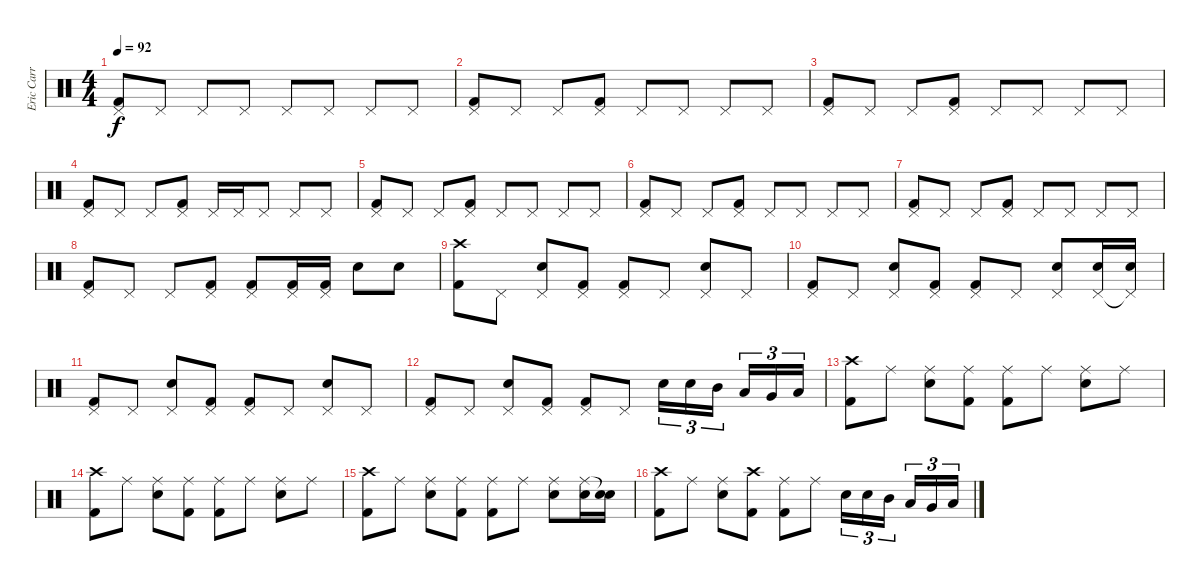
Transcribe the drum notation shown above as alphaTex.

\track ("Eric Carr" "Eric Carr") {instrument percussion}
\staff {score}
\articulation defaults
\ts (4 4)
\tempo 92
\clef neutral
\ks c
("Kick (hit) 2" "Pedal Hi-Hat (hit)").8{dy f} "Pedal Hi-Hat (hit)".8 "Pedal Hi-Hat (hit)".8 "Pedal Hi-Hat (hit)".8 "Pedal Hi-Hat (hit)".8 "Pedal Hi-Hat (hit)".8 "Pedal Hi-Hat (hit)".8 "Pedal Hi-Hat (hit)".8 |
("Kick (hit) 2" "Pedal Hi-Hat (hit)").8 "Pedal Hi-Hat (hit)".8 "Pedal Hi-Hat (hit)".8 ("Kick (hit) 2" "Pedal Hi-Hat (hit)").8 "Pedal Hi-Hat (hit)".8 "Pedal Hi-Hat (hit)".8 "Pedal Hi-Hat (hit)".8 "Pedal Hi-Hat (hit)".8 |
("Kick (hit) 2" "Pedal Hi-Hat (hit)").8 "Pedal Hi-Hat (hit)".8 "Pedal Hi-Hat (hit)".8 ("Kick (hit) 2" "Pedal Hi-Hat (hit)").8 "Pedal Hi-Hat (hit)".8 "Pedal Hi-Hat (hit)".8 "Pedal Hi-Hat (hit)".8 "Pedal Hi-Hat (hit)".8 |
("Kick (hit) 2" "Pedal Hi-Hat (hit)").8 "Pedal Hi-Hat (hit)".8 "Pedal Hi-Hat (hit)".8 ("Kick (hit) 2" "Pedal Hi-Hat (hit)").8 "Pedal Hi-Hat (hit)".16 "Pedal Hi-Hat (hit)".16 "Pedal Hi-Hat (hit)".8 "Pedal Hi-Hat (hit)".8 "Pedal Hi-Hat (hit)".8 |
("Kick (hit) 2" "Pedal Hi-Hat (hit)").8 "Pedal Hi-Hat (hit)".8 "Pedal Hi-Hat (hit)".8 ("Kick (hit) 2" "Pedal Hi-Hat (hit)").8 "Pedal Hi-Hat (hit)".8 "Pedal Hi-Hat (hit)".8 "Pedal Hi-Hat (hit)".8 "Pedal Hi-Hat (hit)".8 |
("Kick (hit) 2" "Pedal Hi-Hat (hit)").8 "Pedal Hi-Hat (hit)".8 "Pedal Hi-Hat (hit)".8 ("Kick (hit) 2" "Pedal Hi-Hat (hit)").8 "Pedal Hi-Hat (hit)".8 "Pedal Hi-Hat (hit)".8 "Pedal Hi-Hat (hit)".8 "Pedal Hi-Hat (hit)".8 |
("Kick (hit) 2" "Pedal Hi-Hat (hit)").8 "Pedal Hi-Hat (hit)".8 "Pedal Hi-Hat (hit)".8 ("Kick (hit) 2" "Pedal Hi-Hat (hit)").8 "Pedal Hi-Hat (hit)".8 "Pedal Hi-Hat (hit)".8 "Pedal Hi-Hat (hit)".8 "Pedal Hi-Hat (hit)".8 |
("Kick (hit) 2" "Pedal Hi-Hat (hit)").8 "Pedal Hi-Hat (hit)".8 "Pedal Hi-Hat (hit)".8 ("Kick (hit) 2" "Pedal Hi-Hat (hit)").8 ("Kick (hit) 2" "Pedal Hi-Hat (hit)").8 ("Kick (hit) 2" "Pedal Hi-Hat (hit)").16 ("Kick (hit) 2" "Pedal Hi-Hat (hit)").16 "Snare (hit) 2".8 "Snare (hit) 2".8 |
("Kick (hit) 2" "Crash high (hit)").8 "Pedal Hi-Hat (hit)".8 ("Snare (hit) 2" "Pedal Hi-Hat (hit)").8 ("Kick (hit) 2" "Pedal Hi-Hat (hit)").8 ("Kick (hit) 2" "Pedal Hi-Hat (hit)").8 "Pedal Hi-Hat (hit)".8 ("Snare (hit) 2" "Pedal Hi-Hat (hit)").8 "Pedal Hi-Hat (hit)".8 |
("Kick (hit) 2" "Pedal Hi-Hat (hit)").8 "Pedal Hi-Hat (hit)".8 ("Snare (hit) 2" "Pedal Hi-Hat (hit)").8 ("Kick (hit) 2" "Pedal Hi-Hat (hit)").8 ("Kick (hit) 2" "Pedal Hi-Hat (hit)").8 "Pedal Hi-Hat (hit)".8 ("Snare (hit) 2" "Pedal Hi-Hat (hit)").8 ("Snare (hit) 2" "Pedal Hi-Hat (hit)").16 ("Snare (hit) 2" "Pedal Hi-Hat (hit)"{t}).16 |
("Kick (hit) 2" "Pedal Hi-Hat (hit)").8 "Pedal Hi-Hat (hit)".8 ("Snare (hit) 2" "Pedal Hi-Hat (hit)").8 ("Kick (hit) 2" "Pedal Hi-Hat (hit)").8 ("Kick (hit) 2" "Pedal Hi-Hat (hit)").8 "Pedal Hi-Hat (hit)".8 ("Snare (hit) 2" "Pedal Hi-Hat (hit)").8 "Pedal Hi-Hat (hit)".8 |
("Kick (hit) 2" "Pedal Hi-Hat (hit)").8 "Pedal Hi-Hat (hit)".8 ("Snare (hit) 2" "Pedal Hi-Hat (hit)").8 ("Kick (hit) 2" "Pedal Hi-Hat (hit)").8 ("Kick (hit) 2" "Pedal Hi-Hat (hit)").8 "Pedal Hi-Hat (hit)".8 "Snare (hit) 2".16{tu (3 2)} "Snare (hit) 2".16{tu (3 2)} "Mid Tom (hit)".16{tu (3 2)} "Low Tom (hit)".16{tu (3 2)} "Very Low Tom (hit)".16{tu (3 2)} "Low Floor Tom (hit)".16{tu (3 2)} |
("Kick (hit) 2" "Crash high (hit)").8 "Ride (middle)".8 ("Snare (hit) 2" "Ride (middle)").8 ("Kick (hit) 2" "Ride (middle)").8 ("Kick (hit) 2" "Ride (middle)").8 "Ride (middle)".8 ("Snare (hit) 2" "Ride (middle)").8 "Ride (middle)".8 |
("Kick (hit) 2" "Crash high (hit)").8 "Ride (middle)".8 ("Snare (hit) 2" "Ride (middle)").8 ("Kick (hit) 2" "Ride (middle)").8 ("Kick (hit) 2" "Ride (middle)").8 "Ride (middle)".8 ("Snare (hit) 2" "Ride (middle)").8 "Ride (middle)".8 |
("Kick (hit) 2" "Crash high (hit)").8 "Ride (middle)".8 ("Snare (hit) 2" "Ride (middle)").8 ("Kick (hit) 2" "Ride (middle)").8 ("Kick (hit) 2" "Ride (middle)").8 "Ride (middle)".8 ("Snare (hit) 2" "Ride (middle)").8 ("Snare (hit) 2" "Ride (middle)").16 ("Snare (hit) 2" "Snare (hit)"{t}).16 |
("Kick (hit) 2" "Crash high (hit)").8 "Ride (middle)".8 ("Snare (hit) 2" "Ride (middle)").8 ("Kick (hit) 2" "Crash high (hit)").8 ("Kick (hit) 2" "Ride (middle)").8 "Ride (middle)".8 "Snare (hit) 2".16{tu (3 2)} "Snare (hit) 2".16{tu (3 2)} "Mid Tom (hit)".16{tu (3 2)} "Low Tom (hit)".16{tu (3 2)} "Very Low Tom (hit)".16{tu (3 2)} "Low Floor Tom (hit)".16{tu (3 2)}
